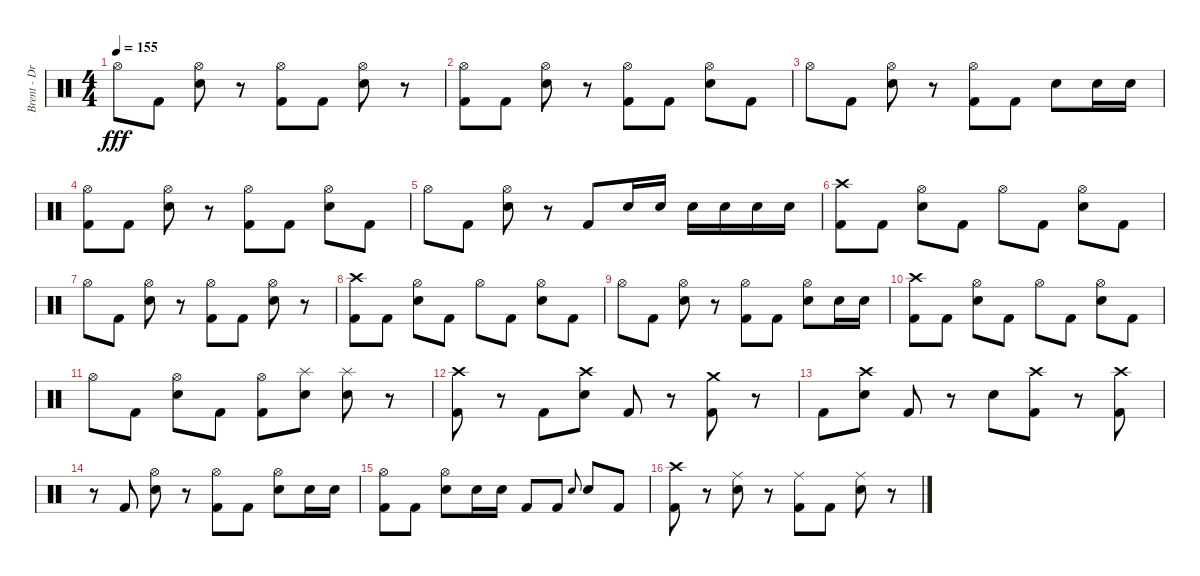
\track ("Brent - Drums" "Brent - Dr") {instrument percussion}
\staff {score}
\articulation defaults
\ts (4 4)
\tempo 155
\clef neutral
\ks c "Hi-Hat (open)".8{dy fff} "Kick (hit) 2".8
("Hi-Hat (open)" "Snare (hit) 2").8 r.8 ("Hi-Hat (open)" "Kick (hit) 2").8 "Kick (hit) 2".8 ("Hi-Hat (open)" "Snare (hit) 2").8 r.8 |
("Hi-Hat (open)" "Kick (hit) 2").8 "Kick (hit) 2".8 ("Hi-Hat (open)" "Snare (hit) 2").8 r.8 ("Hi-Hat (open)" "Kick (hit) 2").8 "Kick (hit) 2".8 ("Hi-Hat (open)" "Snare (hit) 2").8 "Kick (hit) 2".8 |
"Hi-Hat (open)".8 "Kick (hit) 2".8 ("Hi-Hat (open)" "Snare (hit) 2").8 r.8 ("Hi-Hat (open)" "Kick (hit) 2").8 "Kick (hit) 2".8 "Snare (hit) 2".8 "Snare (hit) 2".16 "Snare (hit) 2".16 |
("Hi-Hat (open)" "Kick (hit) 2").8 "Kick (hit) 2".8 ("Hi-Hat (open)" "Snare (hit) 2").8 r.8 ("Hi-Hat (open)" "Kick (hit) 2").8 "Kick (hit) 2".8 ("Hi-Hat (open)" "Snare (hit) 2").8 "Kick (hit) 2".8 |
"Hi-Hat (open)".8 "Kick (hit) 2".8 ("Hi-Hat (open)" "Snare (hit) 2").8 r.8 "Kick (hit) 2".8 "Snare (hit) 2".16 "Snare (hit) 2".16 "Snare (hit) 2".16 "Snare (hit) 2".16 "Snare (hit) 2".16 "Snare (hit) 2".16 |
("Crash high (hit)" "Kick (hit) 2").8 "Kick (hit) 2".8 ("Hi-Hat (open)" "Snare (hit) 2").8 "Kick (hit) 2".8 "Hi-Hat (open)".8 "Kick (hit) 2".8 ("Hi-Hat (open)" "Snare (hit) 2").8 "Kick (hit) 2".8 |
"Hi-Hat (open)".8 "Kick (hit) 2".8 ("Hi-Hat (open)" "Snare (hit) 2").8 r.8 ("Hi-Hat (open)" "Kick (hit) 2").8 "Kick (hit) 2".8 ("Hi-Hat (open)" "Snare (hit) 2").8 r.8 |
("Crash high (hit)" "Kick (hit) 2").8 "Kick (hit) 2".8 ("Hi-Hat (open)" "Snare (hit) 2").8 "Kick (hit) 2".8 "Hi-Hat (open)".8 "Kick (hit) 2".8 ("Hi-Hat (open)" "Snare (hit) 2").8 "Kick (hit) 2".8 |
"Hi-Hat (open)".8 "Kick (hit) 2".8 ("Hi-Hat (open)" "Snare (hit) 2").8 r.8 ("Hi-Hat (open)" "Kick (hit) 2").8 "Kick (hit) 2".8 ("Hi-Hat (open)" "Snare (hit) 2").8 "Snare (hit) 2".16 "Snare (hit) 2".16 |
("Crash high (hit)" "Kick (hit) 2").8 "Kick (hit) 2".8 ("Hi-Hat (open)" "Snare (hit) 2").8 "Kick (hit) 2".8 "Hi-Hat (open)".8 "Kick (hit) 2".8 ("Hi-Hat (open)" "Snare (hit) 2").8 "Kick (hit) 2".8 |
"Hi-Hat (open)".8 "Kick (hit) 2".8 ("Hi-Hat (open)" "Snare (hit) 2").8 "Kick (hit) 2".8 ("Hi-Hat (open)" "Kick (hit) 2").8 ("Splash (hit)" "Snare (hit) 2").8 ("Splash (hit)" "Snare (hit) 2").8 r.8 |
("Crash high (hit)" "Kick (hit) 2").8 r.8 "Kick (hit) 2".8 ("Crash high (hit)" "Snare (hit) 2").8 "Kick (hit) 2".8 r.8 ("Crash medium (hit)" "Kick (hit) 2").8 r.8 |
"Kick (hit) 2".8 ("Crash high (hit)" "Snare (hit) 2").8 "Kick (hit) 2".8 r.8 "Snare (hit) 2".8 ("Crash high (hit)" "Kick (hit) 2").8 r.8 ("Crash high (hit)" "Kick (hit) 2").8 |
r.8 "Kick (hit) 2".8 ("Hi-Hat (open)" "Snare (hit) 2").8 r.8 ("Hi-Hat (open)" "Kick (hit) 2").8 "Kick (hit) 2".8 ("Hi-Hat (open)" "Snare (hit) 2").8 "Snare (hit) 2".16 "Snare (hit) 2".16 |
("Hi-Hat (open)" "Kick (hit) 2").8 "Kick (hit) 2".8 ("Hi-Hat (open)" "Snare (hit) 2").8 "Snare (hit) 2".16 "Snare (hit) 2".16 "Kick (hit) 2".8 "Kick (hit) 2".8 "Snare (hit) 2".8{gr onbeat} "Snare (hit) 2".8 "Kick (hit) 2".8 |
("Crash high (hit)" "Kick (hit) 2").8 r.8 ("Ride (middle)" "Snare (hit) 2").8 r.8 ("Ride (middle)" "Kick (hit) 2").8 "Kick (hit) 2".8 ("Ride (middle)" "Snare (hit) 2").8 r.8
